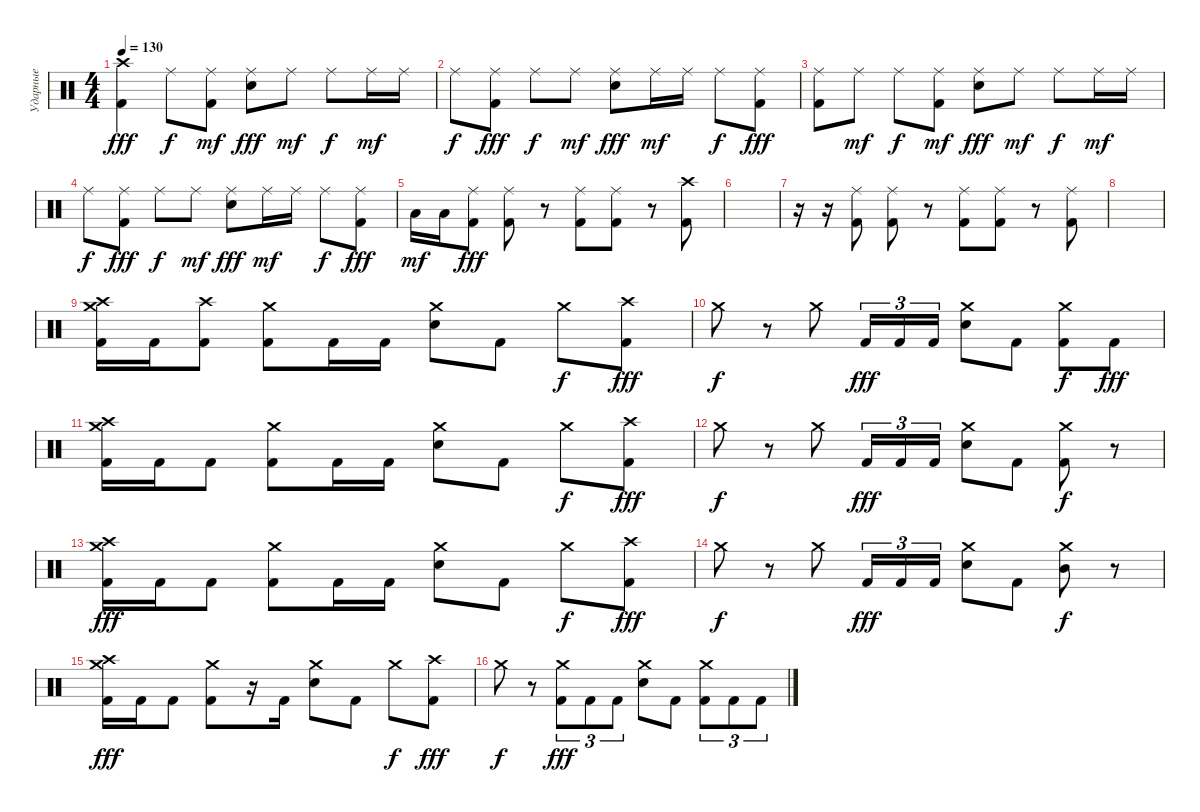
\track ("Ударные" "Ударные") {instrument percussion}
\staff {score}
\articulation defaults
\ts (4 4)
\tempo 130
\clef neutral
\ks c
("Crash high (hit)" "Kick (hit) 2").4{dy fff} "Ride (middle)".8{dy f} ("Ride (middle)" "Kick (hit) 2").8{dy mf} ("Ride (middle)" "Electric Snare (hit)").8{dy fff} "Ride (middle)".8{dy mf} "Ride (middle)".8{dy f} "Ride (middle)".16{dy mf} "Ride (middle)".16 |
"Ride (middle)".8{dy f} ("Ride (middle)" "Kick (hit) 2").8{dy fff} "Ride (middle)".8{dy f} "Ride (middle)".8{dy mf} ("Ride (middle)" "Electric Snare (hit)").8{dy fff} "Ride (middle)".16{dy mf} "Ride (middle)".16 "Ride (middle)".8{dy f} ("Ride (middle)" "Kick (hit) 2").8{dy fff} |
("Ride (middle)" "Kick (hit) 2").8 "Ride (middle)".8{dy mf} "Ride (middle)".8{dy f} ("Ride (middle)" "Kick (hit) 2").8{dy mf} ("Ride (middle)" "Electric Snare (hit)").8{dy fff} "Ride (middle)".8{dy mf} "Ride (middle)".8{dy f} "Ride (middle)".16{dy mf} "Ride (middle)".16 |
"Ride (middle)".8{dy f} ("Ride (middle)" "Kick (hit) 2").8{dy fff} "Ride (middle)".8{dy f} "Ride (middle)".8{dy mf} ("Ride (middle)" "Electric Snare (hit)").8{dy fff} "Ride (middle)".16{dy mf} "Ride (middle)".16 "Ride (middle)".8{dy f} ("Ride (middle)" "Kick (hit) 2").8{dy fff} |
"Low Floor Tom (hit)".16{dy mf} "Low Floor Tom (hit)".16 ("Ride (middle)" "Kick (hit) 2").8{dy fff} ("Ride (middle)" "Kick (hit) 2").8 r.8 ("Ride (middle)" "Kick (hit) 2").8 ("Ride (middle)" "Kick (hit) 2").8 r.8 ("Crash high (hit)" "Kick (hit) 2").8 |
|
r.16 r.16 ("Ride (middle)" "Kick (hit) 2").8 ("Ride (middle)" "Kick (hit) 2").8 r.8 ("Ride (middle)" "Kick (hit) 2").8 ("Ride (middle)" "Kick (hit) 2").8 r.8 ("Ride (middle)" "Kick (hit) 2").8 |
|
("Crash high (hit)" "Crash medium (hit)" "Kick (hit) 2").16 "Kick (hit) 2".16 ("Crash high (hit)" "Kick (hit) 2").8 ("Crash medium (hit)" "Kick (hit) 2").8 "Kick (hit) 2".16 "Kick (hit) 2".16 ("Crash medium (hit)" "Electric Snare (hit)").8 "Kick (hit) 2".8 "Crash medium (hit)".8{dy f} ("Crash high (hit)" "Kick (hit) 2").8{dy fff} |
"Crash medium (hit)".8{dy f} r.8 "Crash medium (hit)".8 "Kick (hit) 2".16{tu (3 2) dy fff} "Kick (hit) 2".16{tu (3 2)} "Kick (hit) 2".16{tu (3 2)} ("Crash medium (hit)" "Electric Snare (hit)").8 "Kick (hit) 2".8 ("Crash medium (hit)" "Kick (hit) 2").8{dy f} "Kick (hit) 2".8{dy fff} |
("Crash high (hit)" "Crash medium (hit)" "Kick (hit) 2").16 "Kick (hit) 2".16 "Kick (hit) 2".8 ("Crash medium (hit)" "Kick (hit) 2").8 "Kick (hit) 2".16 "Kick (hit) 2".16 ("Crash medium (hit)" "Electric Snare (hit)").8 "Kick (hit) 2".8 "Crash medium (hit)".8{dy f} ("Crash high (hit)" "Kick (hit) 2").8{dy fff} |
"Crash medium (hit)".8{dy f} r.8 "Crash medium (hit)".8 "Kick (hit) 2".16{tu (3 2) dy fff} "Kick (hit) 2".16{tu (3 2)} "Kick (hit) 2".16{tu (3 2)} ("Crash medium (hit)" "Electric Snare (hit)").8 "Kick (hit) 2".8 ("Crash medium (hit)" "Kick (hit) 2").8{dy f} r.8 |
("Crash high (hit)" "Crash medium (hit)" "Kick (hit) 2").16{dy fff} "Kick (hit) 2".16 "Kick (hit) 2".8 ("Crash medium (hit)" "Kick (hit) 2").8 "Kick (hit) 2".16 "Kick (hit) 2".16 ("Crash medium (hit)" "Electric Snare (hit)").8 "Kick (hit) 2".8 "Crash medium (hit)".8{dy f} ("Crash high (hit)" "Kick (hit) 2").8{dy fff} |
"Crash medium (hit)".8{dy f} r.8 "Crash medium (hit)".8 "Kick (hit) 2".16{tu (3 2) dy fff} "Kick (hit) 2".16{tu (3 2)} "Kick (hit) 2".16{tu (3 2)} ("Crash medium (hit)" "Electric Snare (hit)").8 "Kick (hit) 2".8 ("Crash medium (hit)" "Mid Tom (hit)").8{dy f} r.8 |
("Crash high (hit)" "Crash medium (hit)" "Kick (hit) 2").16{dy fff} "Kick (hit) 2".16 "Kick (hit) 2".8 ("Crash medium (hit)" "Kick (hit) 2").8 r.16 "Kick (hit) 2".16 ("Crash medium (hit)" "Electric Snare (hit)").8 "Kick (hit) 2".8 "Crash medium (hit)".8{dy f} ("Crash high (hit)" "Kick (hit) 2").8{dy fff} |
"Crash medium (hit)".8{dy f} r.8 ("Crash medium (hit)" "Kick (hit) 2").8{tu (3 2) dy fff} "Kick (hit) 2".8{tu (3 2)} "Kick (hit) 2".8{tu (3 2)} ("Crash medium (hit)" "Electric Snare (hit)").8 "Kick (hit) 2".8 ("Crash medium (hit)" "Kick (hit) 2").8{tu (3 2)} "Kick (hit) 2".8{tu (3 2)} "Kick (hit) 2".8{tu (3 2)}
